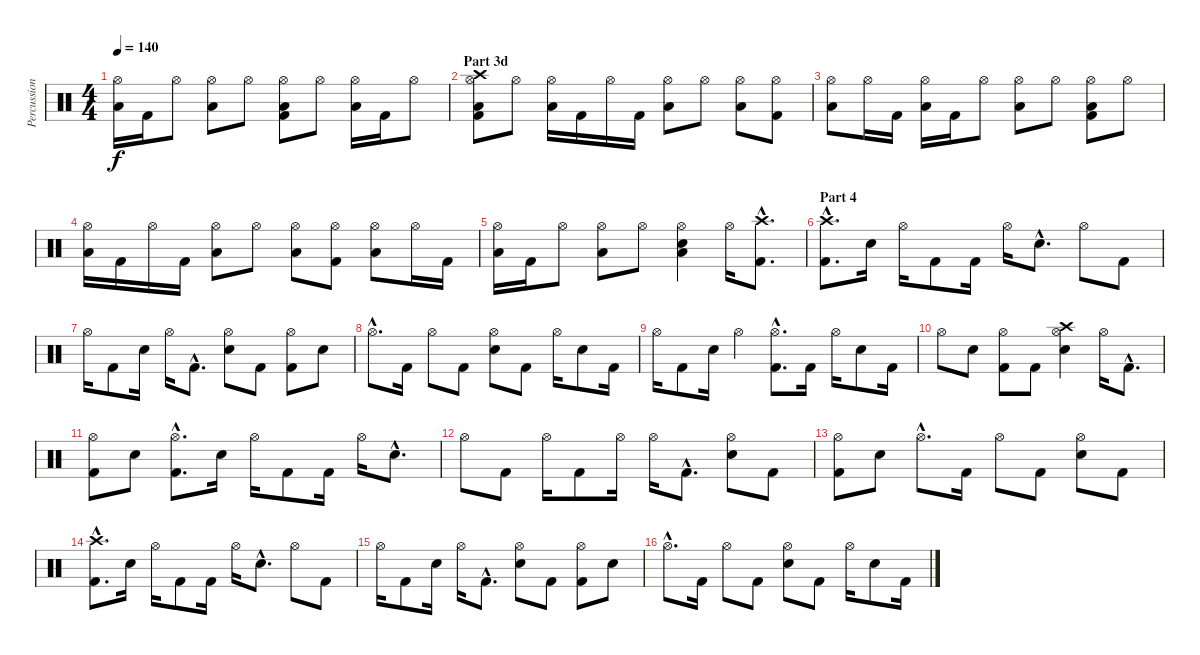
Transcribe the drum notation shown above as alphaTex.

\track ("Percussion" "Percussion") {instrument percussion}
\staff {score}
\articulation defaults
\ts (4 4)
\tempo 140
\clef neutral
\ks c
("Hi-Hat (open)" "Low Floor Tom (hit)").16{dy f} "Kick (hit) 2".16 "Hi-Hat (open)".8 ("Hi-Hat (open)" "Low Floor Tom (hit)").8 "Hi-Hat (open)".8 ("Hi-Hat (open)" "Low Floor Tom (hit)" "Kick (hit) 2").8 "Hi-Hat (open)".8 ("Hi-Hat (open)" "Low Floor Tom (hit)").16 "Kick (hit) 2".16 "Hi-Hat (open)".8 |
\section ("" "Part 3d")
("Crash high (hit)" "Hi-Hat (open)" "Low Floor Tom (hit)" "Kick (hit) 2").8 "Hi-Hat (open)".8 ("Hi-Hat (open)" "Low Floor Tom (hit)").16 "Kick (hit) 2".16 "Hi-Hat (open)".16 "Kick (hit) 2".16 ("Hi-Hat (open)" "Low Floor Tom (hit)").8 "Hi-Hat (open)".8 ("Hi-Hat (open)" "Low Floor Tom (hit)").8 ("Hi-Hat (open)" "Kick (hit) 2").8 |
("Hi-Hat (open)" "Low Floor Tom (hit)").8 "Hi-Hat (open)".16 "Kick (hit) 2".16 ("Hi-Hat (open)" "Low Floor Tom (hit)").16 "Kick (hit) 2".16 "Hi-Hat (open)".8 ("Hi-Hat (open)" "Low Floor Tom (hit)").8 "Hi-Hat (open)".8 ("Hi-Hat (open)" "Low Floor Tom (hit)" "Kick (hit) 2").8 "Hi-Hat (open)".8 |
("Hi-Hat (open)" "Low Floor Tom (hit)").16 "Kick (hit) 2".16 "Hi-Hat (open)".16 "Kick (hit) 2".16 ("Hi-Hat (open)" "Low Floor Tom (hit)").8 "Hi-Hat (open)".8 ("Hi-Hat (open)" "Low Floor Tom (hit)").8 ("Hi-Hat (open)" "Kick (hit) 2").8 ("Hi-Hat (open)" "Low Floor Tom (hit)").8 "Hi-Hat (open)".16 "Kick (hit) 2".16 |
("Hi-Hat (open)" "Low Floor Tom (hit)").16 "Kick (hit) 2".16 "Hi-Hat (open)".8 ("Hi-Hat (open)" "Low Floor Tom (hit)").8 "Hi-Hat (open)".8 ("Hi-Hat (open)" "Low Floor Tom (hit)" "Electric Snare (hit)").4 "Hi-Hat (open)".16 ("Crash high (hit)"{hac} "Kick (hit) 2"{hac}).8{d} |
\section ("" "Part 4")
("Crash high (hit)"{hac} "Kick (hit) 2"{hac}).8{d} "Electric Snare (hit)".16 "Hi-Hat (open)".16 "Kick (hit) 2".8 "Kick (hit) 2".16 "Hi-Hat (open)".16 "Electric Snare (hit)"{hac}.8{d} "Hi-Hat (open)".8 "Kick (hit) 2".8 |
"Hi-Hat (open)".16 "Kick (hit) 2".8 "Electric Snare (hit)".16 "Hi-Hat (open)".16 "Kick (hit) 2"{hac}.8{d} ("Hi-Hat (open)" "Electric Snare (hit)").8 "Kick (hit) 2".8 ("Hi-Hat (open)" "Kick (hit) 2").8 "Electric Snare (hit)".8 |
"Hi-Hat (open)"{hac}.8{d} "Kick (hit) 2".16 "Hi-Hat (open)".8 "Kick (hit) 2".8 ("Hi-Hat (open)" "Electric Snare (hit)").8 "Kick (hit) 2".8 "Hi-Hat (open)".16 "Electric Snare (hit)".8 "Kick (hit) 2".16 |
"Hi-Hat (open)".16 "Kick (hit) 2".8 "Electric Snare (hit)".16 "Hi-Hat (open)".4 ("Hi-Hat (open)"{hac} "Kick (hit) 2"{hac}).8{d} "Kick (hit) 2".16 "Hi-Hat (open)".16 "Electric Snare (hit)".8 "Kick (hit) 2".16 |
"Hi-Hat (open)".8 "Electric Snare (hit)".8 ("Hi-Hat (open)" "Kick (hit) 2").8 "Kick (hit) 2".8 ("Crash high (hit)" "Hi-Hat (open)" "Electric Snare (hit)").4 "Hi-Hat (open)".16 "Kick (hit) 2"{hac}.8{d} |
("Hi-Hat (open)" "Kick (hit) 2").8 "Electric Snare (hit)".8 ("Hi-Hat (open)"{hac} "Kick (hit) 2"{hac}).8{d} "Electric Snare (hit)".16 "Hi-Hat (open)".16 "Kick (hit) 2".8 "Kick (hit) 2".16 "Hi-Hat (open)".16 "Electric Snare (hit)"{hac}.8{d} |
"Hi-Hat (open)".8 "Kick (hit) 2".8 "Hi-Hat (open)".16 "Kick (hit) 2".8 "Hi-Hat (open)".16 "Hi-Hat (open)".16 "Kick (hit) 2"{hac}.8{d} ("Hi-Hat (open)" "Electric Snare (hit)").8 "Kick (hit) 2".8 |
("Hi-Hat (open)" "Kick (hit) 2").8 "Electric Snare (hit)".8 "Hi-Hat (open)"{hac}.8{d} "Kick (hit) 2".16 "Hi-Hat (open)".8 "Kick (hit) 2".8 ("Hi-Hat (open)" "Electric Snare (hit)").8 "Kick (hit) 2".8 |
("Crash high (hit)"{hac} "Kick (hit) 2"{hac}).8{d} "Electric Snare (hit)".16 "Hi-Hat (open)".16 "Kick (hit) 2".8 "Kick (hit) 2".16 "Hi-Hat (open)".16 "Electric Snare (hit)"{hac}.8{d} "Hi-Hat (open)".8 "Kick (hit) 2".8 |
"Hi-Hat (open)".16 "Kick (hit) 2".8 "Electric Snare (hit)".16 "Hi-Hat (open)".16 "Kick (hit) 2"{hac}.8{d} ("Hi-Hat (open)" "Electric Snare (hit)").8 "Kick (hit) 2".8 ("Hi-Hat (open)" "Kick (hit) 2").8 "Electric Snare (hit)".8 |
"Hi-Hat (open)"{hac}.8{d} "Kick (hit) 2".16 "Hi-Hat (open)".8 "Kick (hit) 2".8 ("Hi-Hat (open)" "Electric Snare (hit)").8 "Kick (hit) 2".8 "Hi-Hat (open)".16 "Electric Snare (hit)".8 "Kick (hit) 2".16
